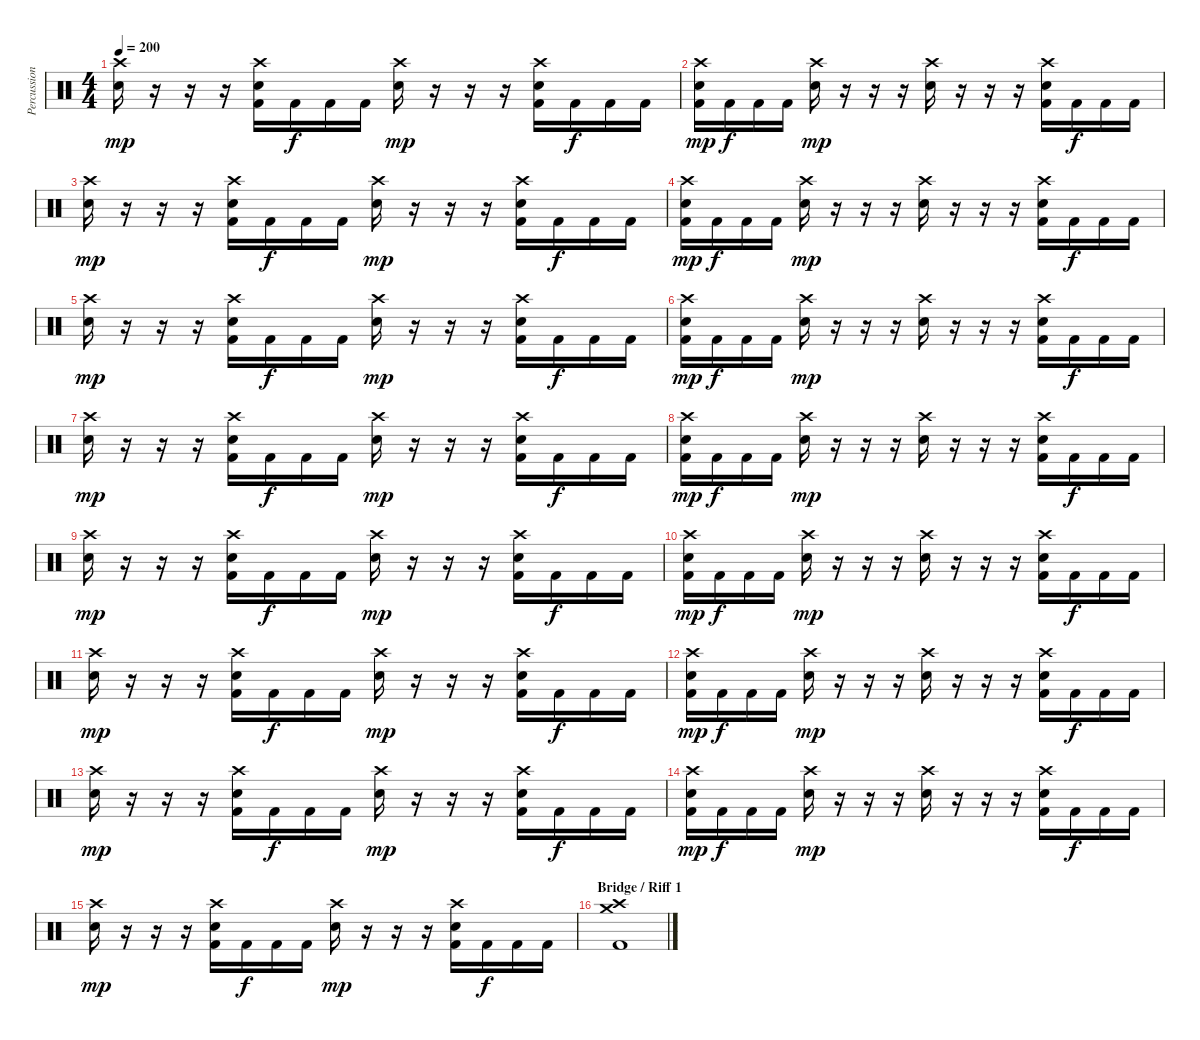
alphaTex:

\track ("Percussions ( Brylle )" "Percussion") {instrument percussion}
\staff {score}
\articulation defaults
\ts (4 4)
\tempo 200
\clef neutral
\ks c
("Crash high (hit)" "Electric Snare (hit)").16{dy mp} r.16 r.16 r.16 ("Crash high (hit)" "Electric Snare (hit)" "Kick (hit) 2").16 "Kick (hit) 2".16{dy f} "Kick (hit) 2".16 "Kick (hit) 2".16 ("Crash high (hit)" "Electric Snare (hit)").16{dy mp} r.16 r.16 r.16 ("Crash high (hit)" "Electric Snare (hit)" "Kick (hit) 2").16 "Kick (hit) 2".16{dy f} "Kick (hit) 2".16 "Kick (hit) 2".16 |
("Crash high (hit)" "Electric Snare (hit)" "Kick (hit) 2").16{dy mp} "Kick (hit) 2".16{dy f} "Kick (hit) 2".16 "Kick (hit) 2".16 ("Crash high (hit)" "Electric Snare (hit)").16{dy mp} r.16 r.16 r.16 ("Crash high (hit)" "Electric Snare (hit)").16 r.16 r.16 r.16 ("Crash high (hit)" "Electric Snare (hit)" "Kick (hit) 2").16 "Kick (hit) 2".16{dy f} "Kick (hit) 2".16 "Kick (hit) 2".16 |
("Crash high (hit)" "Electric Snare (hit)").16{dy mp} r.16 r.16 r.16 ("Crash high (hit)" "Electric Snare (hit)" "Kick (hit) 2").16 "Kick (hit) 2".16{dy f} "Kick (hit) 2".16 "Kick (hit) 2".16 ("Crash high (hit)" "Electric Snare (hit)").16{dy mp} r.16 r.16 r.16 ("Crash high (hit)" "Electric Snare (hit)" "Kick (hit) 2").16 "Kick (hit) 2".16{dy f} "Kick (hit) 2".16 "Kick (hit) 2".16 |
("Crash high (hit)" "Electric Snare (hit)" "Kick (hit) 2").16{dy mp} "Kick (hit) 2".16{dy f} "Kick (hit) 2".16 "Kick (hit) 2".16 ("Crash high (hit)" "Electric Snare (hit)").16{dy mp} r.16 r.16 r.16 ("Crash high (hit)" "Electric Snare (hit)").16 r.16 r.16 r.16 ("Crash high (hit)" "Electric Snare (hit)" "Kick (hit) 2").16 "Kick (hit) 2".16{dy f} "Kick (hit) 2".16 "Kick (hit) 2".16 |
("Crash high (hit)" "Electric Snare (hit)").16{dy mp} r.16 r.16 r.16 ("Crash high (hit)" "Electric Snare (hit)" "Kick (hit) 2").16 "Kick (hit) 2".16{dy f} "Kick (hit) 2".16 "Kick (hit) 2".16 ("Crash high (hit)" "Electric Snare (hit)").16{dy mp} r.16 r.16 r.16 ("Crash high (hit)" "Electric Snare (hit)" "Kick (hit) 2").16 "Kick (hit) 2".16{dy f} "Kick (hit) 2".16 "Kick (hit) 2".16 |
("Crash high (hit)" "Electric Snare (hit)" "Kick (hit) 2").16{dy mp} "Kick (hit) 2".16{dy f} "Kick (hit) 2".16 "Kick (hit) 2".16 ("Crash high (hit)" "Electric Snare (hit)").16{dy mp} r.16 r.16 r.16 ("Crash high (hit)" "Electric Snare (hit)").16 r.16 r.16 r.16 ("Crash high (hit)" "Electric Snare (hit)" "Kick (hit) 2").16 "Kick (hit) 2".16{dy f} "Kick (hit) 2".16 "Kick (hit) 2".16 |
("Crash high (hit)" "Electric Snare (hit)").16{dy mp} r.16 r.16 r.16 ("Crash high (hit)" "Electric Snare (hit)" "Kick (hit) 2").16 "Kick (hit) 2".16{dy f} "Kick (hit) 2".16 "Kick (hit) 2".16 ("Crash high (hit)" "Electric Snare (hit)").16{dy mp} r.16 r.16 r.16 ("Crash high (hit)" "Electric Snare (hit)" "Kick (hit) 2").16 "Kick (hit) 2".16{dy f} "Kick (hit) 2".16 "Kick (hit) 2".16 |
("Crash high (hit)" "Electric Snare (hit)" "Kick (hit) 2").16{dy mp} "Kick (hit) 2".16{dy f} "Kick (hit) 2".16 "Kick (hit) 2".16 ("Crash high (hit)" "Electric Snare (hit)").16{dy mp} r.16 r.16 r.16 ("Crash high (hit)" "Electric Snare (hit)").16 r.16 r.16 r.16 ("Crash high (hit)" "Electric Snare (hit)" "Kick (hit) 2").16 "Kick (hit) 2".16{dy f} "Kick (hit) 2".16 "Kick (hit) 2".16 |
("Crash high (hit)" "Electric Snare (hit)").16{dy mp} r.16 r.16 r.16 ("Crash high (hit)" "Electric Snare (hit)" "Kick (hit) 2").16 "Kick (hit) 2".16{dy f} "Kick (hit) 2".16 "Kick (hit) 2".16 ("Crash high (hit)" "Electric Snare (hit)").16{dy mp} r.16 r.16 r.16 ("Crash high (hit)" "Electric Snare (hit)" "Kick (hit) 2").16 "Kick (hit) 2".16{dy f} "Kick (hit) 2".16 "Kick (hit) 2".16 |
("Crash high (hit)" "Electric Snare (hit)" "Kick (hit) 2").16{dy mp} "Kick (hit) 2".16{dy f} "Kick (hit) 2".16 "Kick (hit) 2".16 ("Crash high (hit)" "Electric Snare (hit)").16{dy mp} r.16 r.16 r.16 ("Crash high (hit)" "Electric Snare (hit)").16 r.16 r.16 r.16 ("Crash high (hit)" "Electric Snare (hit)" "Kick (hit) 2").16 "Kick (hit) 2".16{dy f} "Kick (hit) 2".16 "Kick (hit) 2".16 |
("Crash high (hit)" "Electric Snare (hit)").16{dy mp} r.16 r.16 r.16 ("Crash high (hit)" "Electric Snare (hit)" "Kick (hit) 2").16 "Kick (hit) 2".16{dy f} "Kick (hit) 2".16 "Kick (hit) 2".16 ("Crash high (hit)" "Electric Snare (hit)").16{dy mp} r.16 r.16 r.16 ("Crash high (hit)" "Electric Snare (hit)" "Kick (hit) 2").16 "Kick (hit) 2".16{dy f} "Kick (hit) 2".16 "Kick (hit) 2".16 |
("Crash high (hit)" "Electric Snare (hit)" "Kick (hit) 2").16{dy mp} "Kick (hit) 2".16{dy f} "Kick (hit) 2".16 "Kick (hit) 2".16 ("Crash high (hit)" "Electric Snare (hit)").16{dy mp} r.16 r.16 r.16 ("Crash high (hit)" "Electric Snare (hit)").16 r.16 r.16 r.16 ("Crash high (hit)" "Electric Snare (hit)" "Kick (hit) 2").16 "Kick (hit) 2".16{dy f} "Kick (hit) 2".16 "Kick (hit) 2".16 |
("Crash high (hit)" "Electric Snare (hit)").16{dy mp} r.16 r.16 r.16 ("Crash high (hit)" "Electric Snare (hit)" "Kick (hit) 2").16 "Kick (hit) 2".16{dy f} "Kick (hit) 2".16 "Kick (hit) 2".16 ("Crash high (hit)" "Electric Snare (hit)").16{dy mp} r.16 r.16 r.16 ("Crash high (hit)" "Electric Snare (hit)" "Kick (hit) 2").16 "Kick (hit) 2".16{dy f} "Kick (hit) 2".16 "Kick (hit) 2".16 |
("Crash high (hit)" "Electric Snare (hit)" "Kick (hit) 2").16{dy mp} "Kick (hit) 2".16{dy f} "Kick (hit) 2".16 "Kick (hit) 2".16 ("Crash high (hit)" "Electric Snare (hit)").16{dy mp} r.16 r.16 r.16 ("Crash high (hit)" "Electric Snare (hit)").16 r.16 r.16 r.16 ("Crash high (hit)" "Electric Snare (hit)" "Kick (hit) 2").16 "Kick (hit) 2".16{dy f} "Kick (hit) 2".16 "Kick (hit) 2".16 |
("Crash high (hit)" "Electric Snare (hit)").16{dy mp} r.16 r.16 r.16 ("Crash high (hit)" "Electric Snare (hit)" "Kick (hit) 2").16 "Kick (hit) 2".16{dy f} "Kick (hit) 2".16 "Kick (hit) 2".16 ("Crash high (hit)" "Electric Snare (hit)").16{dy mp} r.16 r.16 r.16 ("Crash high (hit)" "Electric Snare (hit)" "Kick (hit) 2").16 "Kick (hit) 2".16{dy f} "Kick (hit) 2".16 "Kick (hit) 2".16 |
\section ("" "Bridge / Riff 1")
("Crash medium (hit)" "Crash high (hit)" "Kick (hit) 2").1
